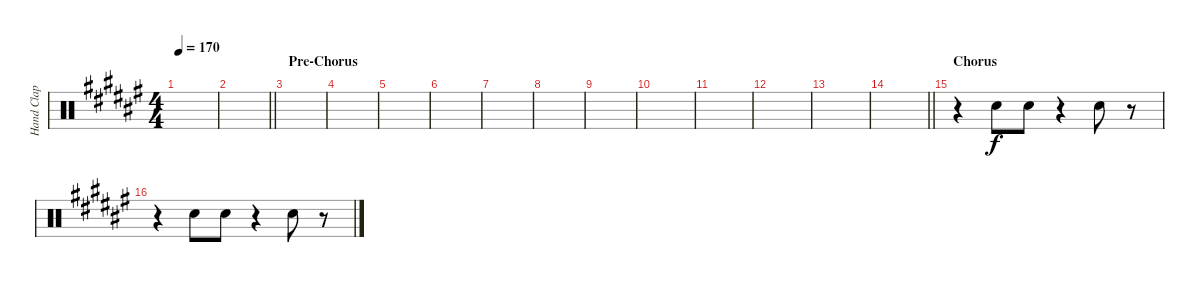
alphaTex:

\track ("Hand Clap" "Hand Clap") {instrument percussion}
\staff {score}
\articulation defaults
\ts (4 4)
\tempo 170
\clef neutral
\ks f#
|
\barLineRight lightlight
|
\section ("" "Pre-Chorus")
|
|
|
|
|
|
|
|
|
|
|
\barLineRight lightlight
|
\section ("" "Chorus")
r.4 "Hand Clap (hit)".8 "Hand Clap (hit)".8 r.4 "Hand Clap (hit)".8 r.8 |
r.4 "Hand Clap (hit)".8 "Hand Clap (hit)".8 r.4 "Hand Clap (hit)".8 r.8
